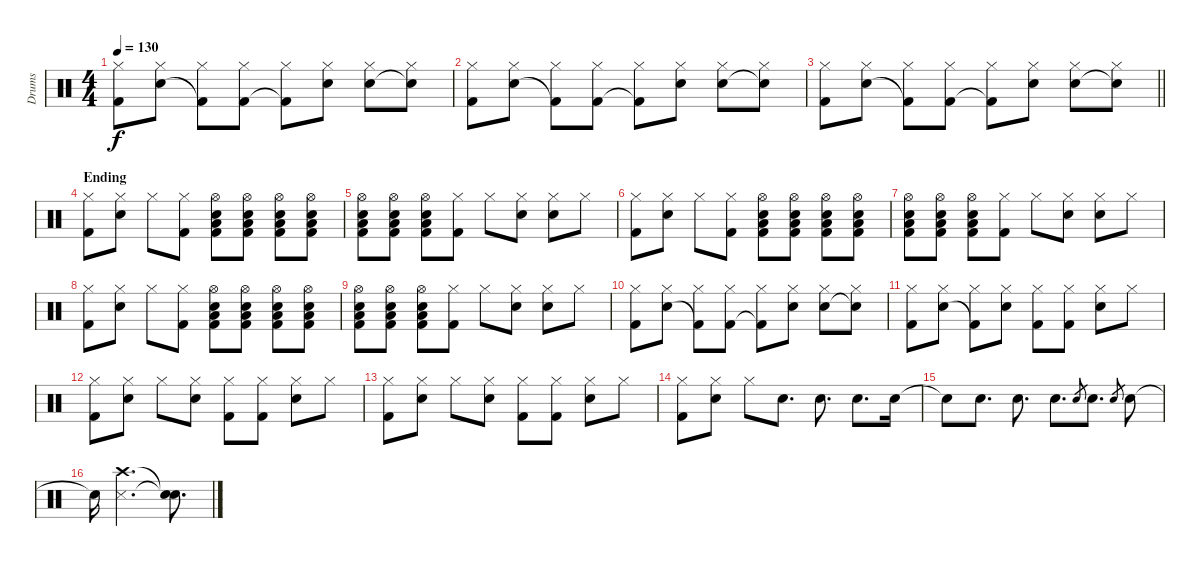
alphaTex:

\track ("Drums" "Drums") {instrument percussion}
\staff {score}
\articulation defaults
\ts (4 4)
\tempo 130
\clef neutral
\ks c
("Kick (hit) 2" "Hi-Hat (closed)").8{dy f} ("Snare (hit) 2" "Hi-Hat (closed)").8 ("Kick (hit) 2"{t} "Hi-Hat (closed)").8 ("Kick (hit) 2" "Hi-Hat (closed)").8 ("Kick (hit) 2"{t} "Hi-Hat (closed)").8 ("Snare (hit) 2" "Hi-Hat (closed)").8 ("Snare (hit) 2" "Hi-Hat (closed)").8 ("Snare (hit) 2"{t} "Hi-Hat (closed)").8 |
("Kick (hit) 2" "Hi-Hat (closed)").8 ("Snare (hit) 2" "Hi-Hat (closed)").8 ("Kick (hit) 2"{t} "Hi-Hat (closed)").8 ("Kick (hit) 2" "Hi-Hat (closed)").8 ("Kick (hit) 2"{t} "Hi-Hat (closed)").8 ("Snare (hit) 2" "Hi-Hat (closed)").8 ("Snare (hit) 2" "Hi-Hat (closed)").8 ("Snare (hit) 2"{t} "Hi-Hat (closed)").8 |
\barLineRight lightlight
("Kick (hit) 2" "Hi-Hat (closed)").8 ("Snare (hit) 2" "Hi-Hat (closed)").8 ("Kick (hit) 2"{t} "Hi-Hat (closed)").8 ("Kick (hit) 2" "Hi-Hat (closed)").8 ("Kick (hit) 2"{t} "Hi-Hat (closed)").8 ("Snare (hit) 2" "Hi-Hat (closed)").8 ("Snare (hit) 2" "Hi-Hat (closed)").8 ("Snare (hit) 2"{t} "Hi-Hat (closed)").8 |
\section ("" "Ending")
("Kick (hit) 2" "Hi-Hat (closed)").8 ("Snare (hit) 2" "Hi-Hat (closed)").8 "Hi-Hat (closed)".8 ("Kick (hit) 2" "Hi-Hat (closed)").8 ("Kick (hit) 2" "Snare (hit) 2" "Low Floor Tom (hit)" "Hi-Hat (open)").8 ("Kick (hit) 2" "Snare (hit) 2" "Low Floor Tom (hit)" "Hi-Hat (open)").8 ("Kick (hit) 2" "Snare (hit) 2" "Low Floor Tom (hit)" "Hi-Hat (open)").8 ("Kick (hit) 2" "Snare (hit) 2" "Low Floor Tom (hit)" "Hi-Hat (open)").8 |
("Kick (hit) 2" "Snare (hit) 2" "Low Floor Tom (hit)" "Hi-Hat (open)").8 ("Kick (hit) 2" "Snare (hit) 2" "Low Floor Tom (hit)" "Hi-Hat (open)").8 ("Kick (hit) 2" "Snare (hit) 2" "Low Floor Tom (hit)" "Hi-Hat (open)").8 ("Kick (hit) 2" "Hi-Hat (closed)").8 "Hi-Hat (closed)".8 ("Snare (hit) 2" "Hi-Hat (closed)").8 ("Snare (hit) 2" "Hi-Hat (closed)").8 "Hi-Hat (closed)".8 |
("Kick (hit) 2" "Hi-Hat (closed)").8 ("Snare (hit) 2" "Hi-Hat (closed)").8 "Hi-Hat (closed)".8 ("Kick (hit) 2" "Hi-Hat (closed)").8 ("Kick (hit) 2" "Snare (hit) 2" "Low Floor Tom (hit)" "Hi-Hat (open)").8 ("Kick (hit) 2" "Snare (hit) 2" "Low Floor Tom (hit)" "Hi-Hat (open)").8 ("Kick (hit) 2" "Snare (hit) 2" "Low Floor Tom (hit)" "Hi-Hat (open)").8 ("Kick (hit) 2" "Snare (hit) 2" "Low Floor Tom (hit)" "Hi-Hat (open)").8 |
("Kick (hit) 2" "Snare (hit) 2" "Low Floor Tom (hit)" "Hi-Hat (open)").8 ("Kick (hit) 2" "Snare (hit) 2" "Low Floor Tom (hit)" "Hi-Hat (open)").8 ("Kick (hit) 2" "Snare (hit) 2" "Low Floor Tom (hit)" "Hi-Hat (open)").8 ("Kick (hit) 2" "Hi-Hat (closed)").8 "Hi-Hat (closed)".8 ("Snare (hit) 2" "Hi-Hat (closed)").8 ("Snare (hit) 2" "Hi-Hat (closed)").8 "Hi-Hat (closed)".8 |
("Kick (hit) 2" "Hi-Hat (closed)").8 ("Snare (hit) 2" "Hi-Hat (closed)").8 "Hi-Hat (closed)".8 ("Kick (hit) 2" "Hi-Hat (closed)").8 ("Kick (hit) 2" "Snare (hit) 2" "Low Floor Tom (hit)" "Hi-Hat (open)").8 ("Kick (hit) 2" "Snare (hit) 2" "Low Floor Tom (hit)" "Hi-Hat (open)").8 ("Kick (hit) 2" "Snare (hit) 2" "Low Floor Tom (hit)" "Hi-Hat (open)").8 ("Kick (hit) 2" "Snare (hit) 2" "Low Floor Tom (hit)" "Hi-Hat (open)").8 |
("Kick (hit) 2" "Snare (hit) 2" "Low Floor Tom (hit)" "Hi-Hat (open)").8 ("Kick (hit) 2" "Snare (hit) 2" "Low Floor Tom (hit)" "Hi-Hat (open)").8 ("Kick (hit) 2" "Snare (hit) 2" "Low Floor Tom (hit)" "Hi-Hat (open)").8 ("Kick (hit) 2" "Hi-Hat (closed)").8 "Hi-Hat (closed)".8 ("Snare (hit) 2" "Hi-Hat (closed)").8 ("Snare (hit) 2" "Hi-Hat (closed)").8 "Hi-Hat (closed)".8 |
("Kick (hit) 2" "Hi-Hat (closed)").8 ("Snare (hit) 2" "Hi-Hat (closed)").8 ("Kick (hit) 2"{t} "Hi-Hat (closed)").8 ("Kick (hit) 2" "Hi-Hat (closed)").8 ("Kick (hit) 2"{t} "Hi-Hat (closed)").8 ("Snare (hit) 2" "Hi-Hat (closed)").8 ("Snare (hit) 2" "Hi-Hat (closed)").8 ("Snare (hit) 2"{t} "Hi-Hat (closed)").8 |
("Kick (hit) 2" "Hi-Hat (closed)").8 ("Snare (hit) 2" "Hi-Hat (closed)").8 ("Kick (hit) 2"{t} "Hi-Hat (closed)").8 ("Hi-Hat (closed)" "Snare (hit) 2").8 ("Kick (hit) 2" "Hi-Hat (closed)").8 ("Kick (hit) 2" "Hi-Hat (closed)").8 ("Hi-Hat (closed)" "Snare (hit) 2").8 "Hi-Hat (closed)".8 |
("Kick (hit) 2" "Hi-Hat (closed)").8 ("Hi-Hat (closed)" "Snare (hit) 2").8 "Hi-Hat (closed)".8 ("Hi-Hat (closed)" "Snare (hit) 2").8 ("Kick (hit) 2" "Hi-Hat (closed)").8 ("Kick (hit) 2" "Hi-Hat (closed)").8 ("Hi-Hat (closed)" "Snare (hit) 2").8 "Hi-Hat (closed)".8 |
("Kick (hit) 2" "Hi-Hat (closed)").8 ("Hi-Hat (closed)" "Snare (hit) 2").8 "Hi-Hat (closed)".8 ("Hi-Hat (closed)" "Snare (hit) 2").8 ("Kick (hit) 2" "Hi-Hat (closed)").8 ("Kick (hit) 2" "Hi-Hat (closed)").8 ("Hi-Hat (closed)" "Snare (hit) 2").8 "Hi-Hat (closed)".8 |
("Kick (hit) 2" "Hi-Hat (closed)").8 ("Hi-Hat (closed)" "Snare (hit) 2").8 "Hi-Hat (closed)".8 "Snare (hit) 2".8{d} "Snare (hit) 2".8{d} "Snare (hit) 2".8{d} "Snare (hit) 2".16 |
"Snare (hit) 2"{t}.8 "Snare (hit) 2".8{d} "Snare (hit) 2".8{d} "Snare (hit) 2".8{d} "Snare (hit) 2".8{gr} "Snare (hit) 2".8{d} "Snare (hit) 2".8{gr} "Snare (hit) 2".8 |
"Snare (hit)"{t}.16 ("Snare (side stick) 3" "Crash high (hit)").2{d} ("Snare (hit)"{t} "Snare (hit)"{t}).8{d}
